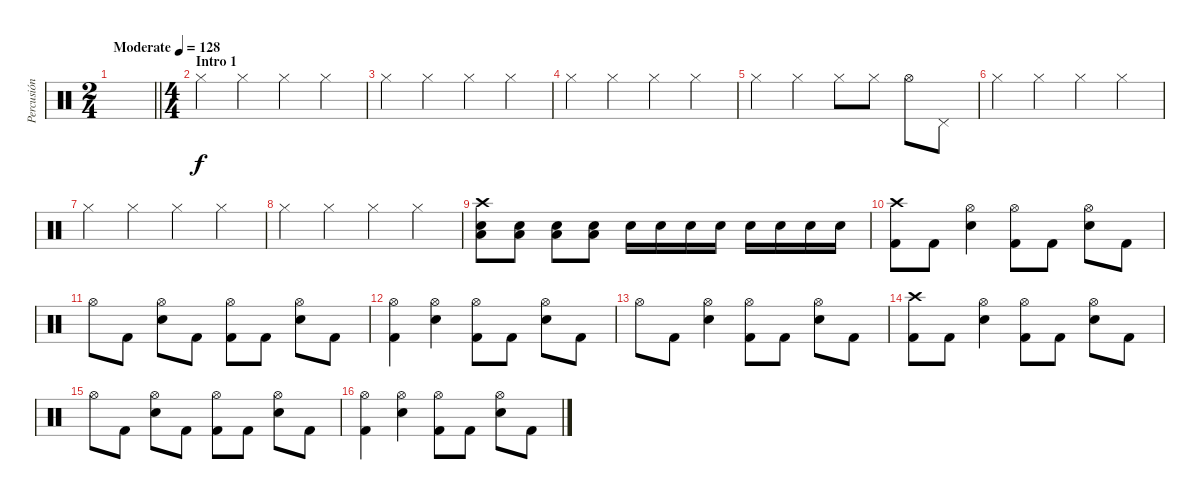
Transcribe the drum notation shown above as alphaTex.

\track ("Percusión" "Percusión") {instrument percussion}
\staff {score}
\articulation defaults
\ts (2 4)
\tempo (128 "Moderate")
\clef neutral
\barLineRight lightlight
\ks c
|
\ts (4 4)
\section ("" "Intro 1")
"Hi-Hat (closed)".4 "Hi-Hat (closed)".4 "Hi-Hat (closed)".4 "Hi-Hat (closed)".4 |
"Hi-Hat (closed)".4 "Hi-Hat (closed)".4 "Hi-Hat (closed)".4 "Hi-Hat (closed)".4 |
"Hi-Hat (closed)".4 "Hi-Hat (closed)".4 "Hi-Hat (closed)".4 "Hi-Hat (closed)".4 |
"Hi-Hat (closed)".4 "Hi-Hat (closed)".4 "Hi-Hat (closed)".8 "Hi-Hat (closed)".8 "Hi-Hat (open)".8 "Pedal Hi-Hat (hit)".8 |
"Hi-Hat (closed)".4 "Hi-Hat (closed)".4 "Hi-Hat (closed)".4 "Hi-Hat (closed)".4 |
"Hi-Hat (closed)".4 "Hi-Hat (closed)".4 "Hi-Hat (closed)".4 "Hi-Hat (closed)".4 |
"Hi-Hat (closed)".4 "Hi-Hat (closed)".4 "Hi-Hat (closed)".4 "Hi-Hat (closed)".4 |
("Low Floor Tom (hit)" "Electric Snare (hit)" "Crash high (hit)").8 ("Low Floor Tom (hit)" "Electric Snare (hit)").8 ("Low Floor Tom (hit)" "Electric Snare (hit)").8 ("Low Floor Tom (hit)" "Electric Snare (hit)").8 "Electric Snare (hit)".16 "Electric Snare (hit)".16 "Electric Snare (hit)".16 "Electric Snare (hit)".16 "Electric Snare (hit)".16 "Electric Snare (hit)".16 "Electric Snare (hit)".16 "Electric Snare (hit)".16 |
("Kick (hit) 2" "Crash high (hit)").8 "Kick (hit) 2".8 ("Electric Snare (hit)" "Hi-Hat (open)").4 ("Kick (hit) 2" "Hi-Hat (open)").8 "Kick (hit) 2".8 ("Electric Snare (hit)" "Hi-Hat (open)").8 "Kick (hit) 2".8 |
"Hi-Hat (open)".8 "Kick (hit) 2".8 ("Electric Snare (hit)" "Hi-Hat (open)").8 "Kick (hit) 2".8 ("Kick (hit) 2" "Hi-Hat (open)").8 "Kick (hit) 2".8 ("Electric Snare (hit)" "Hi-Hat (open)").8 "Kick (hit) 2".8 |
("Kick (hit) 2" "Hi-Hat (open)").4 ("Electric Snare (hit)" "Hi-Hat (open)").4 ("Kick (hit) 2" "Hi-Hat (open)").8 "Kick (hit) 2".8 ("Electric Snare (hit)" "Hi-Hat (open)").8 "Kick (hit) 2".8 |
"Hi-Hat (open)".8 "Kick (hit) 2".8 ("Electric Snare (hit)" "Hi-Hat (open)").4 ("Kick (hit) 2" "Hi-Hat (open)").8 "Kick (hit) 2".8 ("Electric Snare (hit)" "Hi-Hat (open)").8 "Kick (hit) 2".8 |
("Kick (hit) 2" "Crash high (hit)").8 "Kick (hit) 2".8 ("Electric Snare (hit)" "Hi-Hat (open)").4 ("Kick (hit) 2" "Hi-Hat (open)").8 "Kick (hit) 2".8 ("Electric Snare (hit)" "Hi-Hat (open)").8 "Kick (hit) 2".8 |
"Hi-Hat (open)".8 "Kick (hit) 2".8 ("Electric Snare (hit)" "Hi-Hat (open)").8 "Kick (hit) 2".8 ("Kick (hit) 2" "Hi-Hat (open)").8 "Kick (hit) 2".8 ("Electric Snare (hit)" "Hi-Hat (open)").8 "Kick (hit) 2".8 |
("Kick (hit) 2" "Hi-Hat (open)").4 ("Electric Snare (hit)" "Hi-Hat (open)").4 ("Kick (hit) 2" "Hi-Hat (open)").8 "Kick (hit) 2".8 ("Electric Snare (hit)" "Hi-Hat (open)").8 "Kick (hit) 2".8
